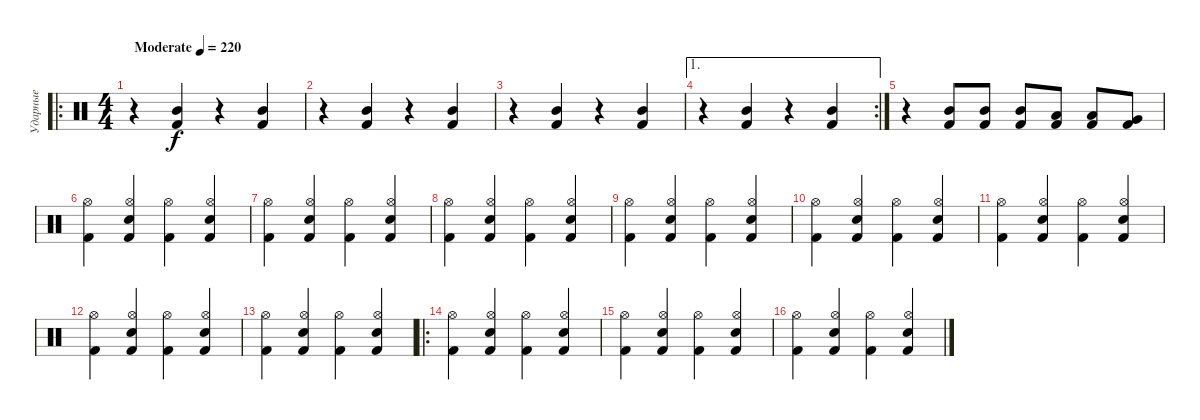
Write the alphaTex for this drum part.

\track ("Ударные" "Ударные") {instrument percussion}
\staff
\articulation defaults
\ro
\ts (4 4)
\tempo (220 "Moderate")
\clef neutral
\ks c
r.4{dy f} ("Kick (hit) 2" "Mid Tom (hit)").4 r.4 ("Kick (hit) 2" "Mid Tom (hit)").4 |
r.4 ("Kick (hit) 2" "Mid Tom (hit)").4 r.4 ("Kick (hit) 2" "Mid Tom (hit)").4 |
r.4 ("Kick (hit) 2" "Mid Tom (hit)").4 r.4 ("Kick (hit) 2" "Mid Tom (hit)").4 |
\ae 1
\rc 2
r.4 ("Kick (hit) 2" "Mid Tom (hit)").4 r.4 ("Kick (hit) 2" "Mid Tom (hit)").4 |
r.4 ("Kick (hit) 2" "Mid Tom (hit)").8 ("Kick (hit) 2" "Mid Tom (hit)").8 ("Mid Tom (hit)" "Kick (hit) 2").8 ("Low Tom (hit)" "Kick (hit) 2").8 ("Low Tom (hit)" "Kick (hit) 2").8 ("Very Low Tom (hit)" "Kick (hit) 2").8 |
("Kick (hit) 2" "Hi-Hat (open)").4 ("Kick (hit) 2" "Snare (hit) 2" "Hi-Hat (open)").4 ("Kick (hit) 2" "Hi-Hat (open)").4 ("Kick (hit) 2" "Snare (hit) 2" "Hi-Hat (open)").4 |
("Kick (hit) 2" "Hi-Hat (open)").4 ("Kick (hit) 2" "Snare (hit) 2" "Hi-Hat (open)").4 ("Kick (hit) 2" "Hi-Hat (open)").4 ("Kick (hit) 2" "Snare (hit) 2" "Hi-Hat (open)").4 |
("Kick (hit) 2" "Hi-Hat (open)").4 ("Kick (hit) 2" "Snare (hit) 2" "Hi-Hat (open)").4 ("Kick (hit) 2" "Hi-Hat (open)").4 ("Kick (hit) 2" "Snare (hit) 2" "Hi-Hat (open)").4 |
("Kick (hit) 2" "Hi-Hat (open)").4 ("Kick (hit) 2" "Snare (hit) 2" "Hi-Hat (open)").4 ("Kick (hit) 2" "Hi-Hat (open)").4 ("Kick (hit) 2" "Snare (hit) 2" "Hi-Hat (open)").4 |
("Kick (hit) 2" "Hi-Hat (open)").4 ("Kick (hit) 2" "Snare (hit) 2" "Hi-Hat (open)").4 ("Kick (hit) 2" "Hi-Hat (open)").4 ("Kick (hit) 2" "Snare (hit) 2" "Hi-Hat (open)").4 |
("Kick (hit) 2" "Hi-Hat (open)").4 ("Kick (hit) 2" "Snare (hit) 2" "Hi-Hat (open)").4 ("Kick (hit) 2" "Hi-Hat (open)").4 ("Kick (hit) 2" "Snare (hit) 2" "Hi-Hat (open)").4 |
("Kick (hit) 2" "Hi-Hat (open)").4 ("Kick (hit) 2" "Snare (hit) 2" "Hi-Hat (open)").4 ("Kick (hit) 2" "Hi-Hat (open)").4 ("Kick (hit) 2" "Snare (hit) 2" "Hi-Hat (open)").4 |
("Kick (hit) 2" "Hi-Hat (open)").4 ("Kick (hit) 2" "Snare (hit) 2" "Hi-Hat (open)").4 ("Kick (hit) 2" "Hi-Hat (open)").4 ("Kick (hit) 2" "Snare (hit) 2" "Hi-Hat (open)").4 |
\ro
("Kick (hit) 2" "Hi-Hat (open)").4 ("Kick (hit) 2" "Snare (hit) 2" "Hi-Hat (open)").4 ("Kick (hit) 2" "Hi-Hat (open)").4 ("Kick (hit) 2" "Snare (hit) 2" "Hi-Hat (open)").4 |
("Kick (hit) 2" "Hi-Hat (open)").4 ("Kick (hit) 2" "Snare (hit) 2" "Hi-Hat (open)").4 ("Kick (hit) 2" "Hi-Hat (open)").4 ("Kick (hit) 2" "Snare (hit) 2" "Hi-Hat (open)").4 |
("Kick (hit) 2" "Hi-Hat (open)").4 ("Kick (hit) 2" "Snare (hit) 2" "Hi-Hat (open)").4 ("Kick (hit) 2" "Hi-Hat (open)").4 ("Kick (hit) 2" "Snare (hit) 2" "Hi-Hat (open)").4
